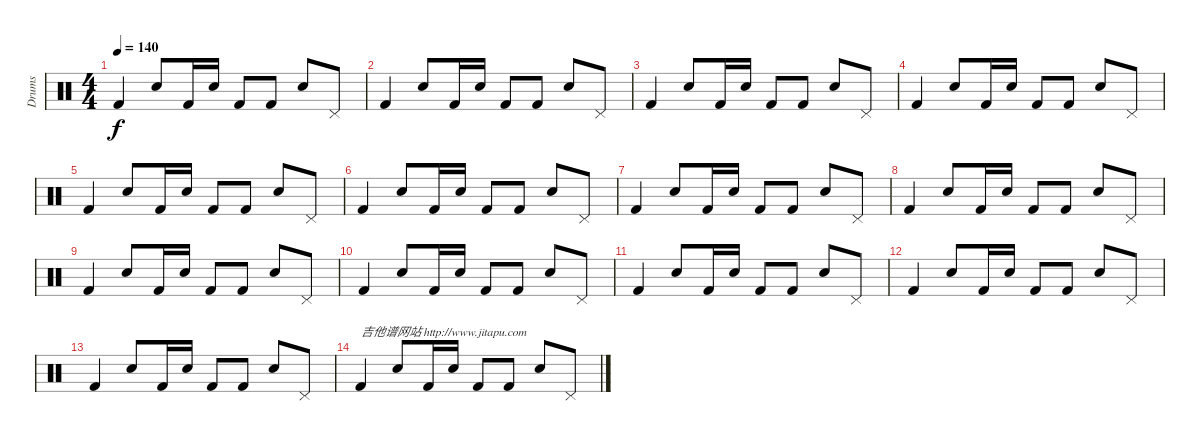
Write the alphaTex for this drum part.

\track ("Drums" "Drums") {instrument percussion}
\staff {score}
\articulation defaults
\ts (4 4)
\tempo 140
\clef neutral
\ks c "Kick (hit) 2".4{dy f} "Snare (hit) 2".8 "Kick (hit) 2".16 "Snare (hit) 2".16 "Kick (hit) 2".8 "Kick (hit) 2".8 "Snare (hit) 2".8 "Pedal Hi-Hat (hit)".8
|
"Kick (hit) 2".4 "Snare (hit) 2".8 "Kick (hit) 2".16 "Snare (hit) 2".16 "Kick (hit) 2".8 "Kick (hit) 2".8 "Snare (hit) 2".8 "Pedal Hi-Hat (hit)".8 |
"Kick (hit) 2".4 "Snare (hit) 2".8 "Kick (hit) 2".16 "Snare (hit) 2".16 "Kick (hit) 2".8 "Kick (hit) 2".8 "Snare (hit) 2".8 "Pedal Hi-Hat (hit)".8 |
"Kick (hit) 2".4 "Snare (hit) 2".8 "Kick (hit) 2".16 "Snare (hit) 2".16 "Kick (hit) 2".8 "Kick (hit) 2".8 "Snare (hit) 2".8 "Pedal Hi-Hat (hit)".8 |
"Kick (hit) 2".4 "Snare (hit) 2".8 "Kick (hit) 2".16 "Snare (hit) 2".16 "Kick (hit) 2".8 "Kick (hit) 2".8 "Snare (hit) 2".8 "Pedal Hi-Hat (hit)".8 |
"Kick (hit) 2".4 "Snare (hit) 2".8 "Kick (hit) 2".16 "Snare (hit) 2".16 "Kick (hit) 2".8 "Kick (hit) 2".8 "Snare (hit) 2".8 "Pedal Hi-Hat (hit)".8 |
"Kick (hit) 2".4 "Snare (hit) 2".8 "Kick (hit) 2".16 "Snare (hit) 2".16 "Kick (hit) 2".8 "Kick (hit) 2".8 "Snare (hit) 2".8 "Pedal Hi-Hat (hit)".8 |
"Kick (hit) 2".4 "Snare (hit) 2".8 "Kick (hit) 2".16 "Snare (hit) 2".16 "Kick (hit) 2".8 "Kick (hit) 2".8 "Snare (hit) 2".8 "Pedal Hi-Hat (hit)".8 |
"Kick (hit) 2".4 "Snare (hit) 2".8 "Kick (hit) 2".16 "Snare (hit) 2".16 "Kick (hit) 2".8 "Kick (hit) 2".8 "Snare (hit) 2".8 "Pedal Hi-Hat (hit)".8 |
"Kick (hit) 2".4 "Snare (hit) 2".8 "Kick (hit) 2".16 "Snare (hit) 2".16 "Kick (hit) 2".8 "Kick (hit) 2".8 "Snare (hit) 2".8 "Pedal Hi-Hat (hit)".8 |
"Kick (hit) 2".4 "Snare (hit) 2".8 "Kick (hit) 2".16 "Snare (hit) 2".16 "Kick (hit) 2".8 "Kick (hit) 2".8 "Snare (hit) 2".8 "Pedal Hi-Hat (hit)".8 |
"Kick (hit) 2".4 "Snare (hit) 2".8 "Kick (hit) 2".16 "Snare (hit) 2".16 "Kick (hit) 2".8 "Kick (hit) 2".8 "Snare (hit) 2".8 "Pedal Hi-Hat (hit)".8 |
"Kick (hit) 2".4 "Snare (hit) 2".8 "Kick (hit) 2".16 "Snare (hit) 2".16 "Kick (hit) 2".8 "Kick (hit) 2".8 "Snare (hit) 2".8 "Pedal Hi-Hat (hit)".8 |
"Kick (hit) 2".4{txt "吉他谱网站 http://www.jitapu.com"} "Snare (hit) 2".8 "Kick (hit) 2".16 "Snare (hit) 2".16 "Kick (hit) 2".8 "Kick (hit) 2".8 "Snare (hit) 2".8 "Pedal Hi-Hat (hit)".8
